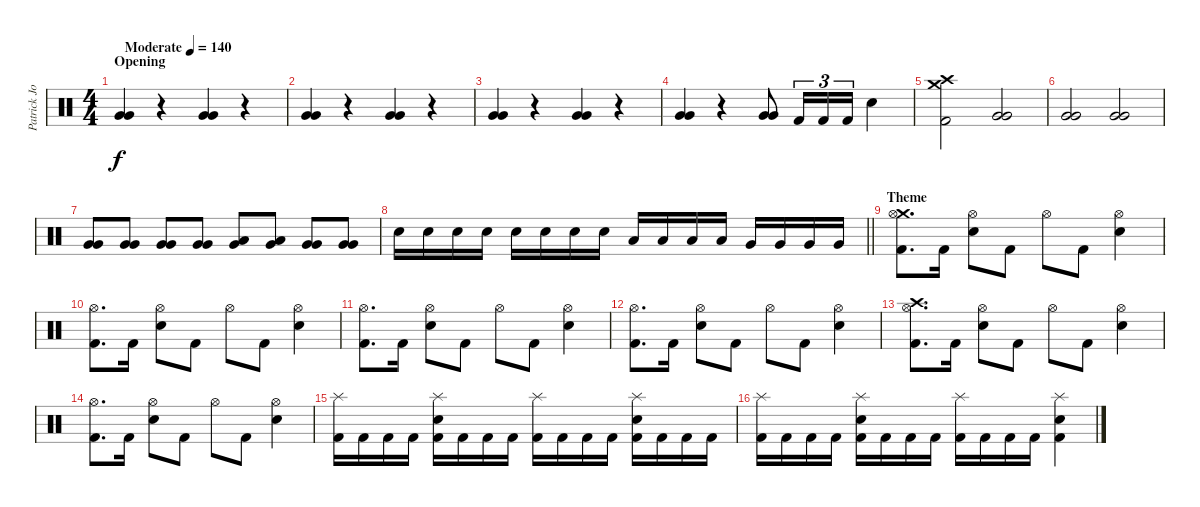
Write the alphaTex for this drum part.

\track ("Patrick Johansson" "Patrick Jo") {instrument percussion}
\staff {score}
\articulation defaults
\ts (4 4)
\section ("" "Opening")
\tempo (140 "Moderate")
\clef neutral
\ks c
("Very Low Tom (hit)" "Very Low Tom (hit)").4{dy f} r.4 ("Very Low Tom (hit)" "Very Low Tom (hit)").4 r.4 |
("Very Low Tom (hit)" "Very Low Tom (hit)").4 r.4 ("Very Low Tom (hit)" "Very Low Tom (hit)").4 r.4 |
("Very Low Tom (hit)" "Very Low Tom (hit)").4 r.4 ("Very Low Tom (hit)" "Very Low Tom (hit)").4 r.4 |
("Very Low Tom (hit)" "Very Low Tom (hit)").4 r.4 ("Very Low Tom (hit)" "Very Low Tom (hit)").8 "Kick (hit) 2".16{tu (3 2)} "Kick (hit) 2".16{tu (3 2)} "Kick (hit) 2".16{tu (3 2)} "Snare (hit) 2".4 |
("Crash medium (hit)" "Crash high (hit)" "Kick (hit) 2").2 ("Very Low Tom (hit)" "Very Low Tom (hit)").2 |
("Very Low Tom (hit)" "Very Low Tom (hit)").2 ("Very Low Tom (hit)" "Very Low Tom (hit)").2 |
("Very Low Tom (hit)" "Very Low Tom (hit)").8 ("Very Low Tom (hit)" "Very Low Tom (hit)").8 ("Very Low Tom (hit)" "Very Low Tom (hit)").8 ("Very Low Tom (hit)" "Very Low Tom (hit)").8 ("Low Tom (hit)" "Very Low Tom (hit)").8 ("Low Tom (hit)" "Very Low Tom (hit)").8 ("Very Low Tom (hit)" "Very Low Tom (hit)").8 ("Very Low Tom (hit)" "Very Low Tom (hit)").8 |
\barLineRight lightlight "Snare (hit) 2".16 "Snare (hit) 2".16 "Snare (hit) 2".16 "Snare (hit) 2".16 "Snare (hit) 2".16 "Snare (hit) 2".16 "Snare (hit) 2".16 "Snare (hit) 2".16 "Low Tom (hit)".16 "Low Tom (hit)".16 "Low Tom (hit)".16 "Low Tom (hit)".16 "Very Low Tom (hit)".16 "Very Low Tom (hit)".16 "Very Low Tom (hit)".16 "Very Low Tom (hit)".16
|
\section ("" "Theme")
("Crash medium (hit)" "Hi-Hat (open)" "Kick (hit) 2").8{d} "Kick (hit) 2".16 ("Hi-Hat (open)" "Snare (hit) 2").8 "Kick (hit) 2".8 "Hi-Hat (open)".8 "Kick (hit) 2".8 ("Hi-Hat (open)" "Snare (hit) 2").4 |
("Hi-Hat (open)" "Kick (hit) 2").8{d} "Kick (hit) 2".16 ("Hi-Hat (open)" "Snare (hit) 2").8 "Kick (hit) 2".8 "Hi-Hat (open)".8 "Kick (hit) 2".8 ("Hi-Hat (open)" "Snare (hit) 2").4 |
("Hi-Hat (open)" "Kick (hit) 2").8{d} "Kick (hit) 2".16 ("Hi-Hat (open)" "Snare (hit) 2").8 "Kick (hit) 2".8 "Hi-Hat (open)".8 "Kick (hit) 2".8 ("Hi-Hat (open)" "Snare (hit) 2").4 |
("Hi-Hat (open)" "Kick (hit) 2").8{d} "Kick (hit) 2".16 ("Hi-Hat (open)" "Snare (hit) 2").8 "Kick (hit) 2".8 "Hi-Hat (open)".8 "Kick (hit) 2".8 ("Hi-Hat (open)" "Snare (hit) 2").4 |
("Crash high (hit)" "Hi-Hat (open)" "Kick (hit) 2").8{d} "Kick (hit) 2".16 ("Hi-Hat (open)" "Snare (hit) 2").8 "Kick (hit) 2".8 "Hi-Hat (open)".8 "Kick (hit) 2".8 ("Hi-Hat (open)" "Snare (hit) 2").4 |
("Hi-Hat (open)" "Kick (hit) 2").8{d} "Kick (hit) 2".16 ("Hi-Hat (open)" "Snare (hit) 2").8 "Kick (hit) 2".8 "Hi-Hat (open)".8 "Kick (hit) 2".8 ("Hi-Hat (open)" "Snare (hit) 2").4 |
("Splash (hit)" "Kick (hit) 2").16 "Kick (hit) 2".16 "Kick (hit) 2".16 "Kick (hit) 2".16 ("Splash (hit)" "Snare (hit) 2" "Kick (hit) 2").16 "Kick (hit) 2".16 "Kick (hit) 2".16 "Kick (hit) 2".16 ("Splash (hit)" "Kick (hit) 2").16 "Kick (hit) 2".16 "Kick (hit) 2".16 "Kick (hit) 2".16 ("Splash (hit)" "Snare (hit) 2" "Kick (hit) 2").16 "Kick (hit) 2".16 "Kick (hit) 2".16 "Kick (hit) 2".16 |
("Splash (hit)" "Kick (hit) 2").16 "Kick (hit) 2".16 "Kick (hit) 2".16 "Kick (hit) 2".16 ("Splash (hit)" "Snare (hit) 2" "Kick (hit) 2").16 "Kick (hit) 2".16 "Kick (hit) 2".16 "Kick (hit) 2".16 ("Splash (hit)" "Kick (hit) 2").16 "Kick (hit) 2".16 "Kick (hit) 2".16 "Kick (hit) 2".16 ("Splash (hit)" "Snare (hit) 2" "Kick (hit) 2").4
